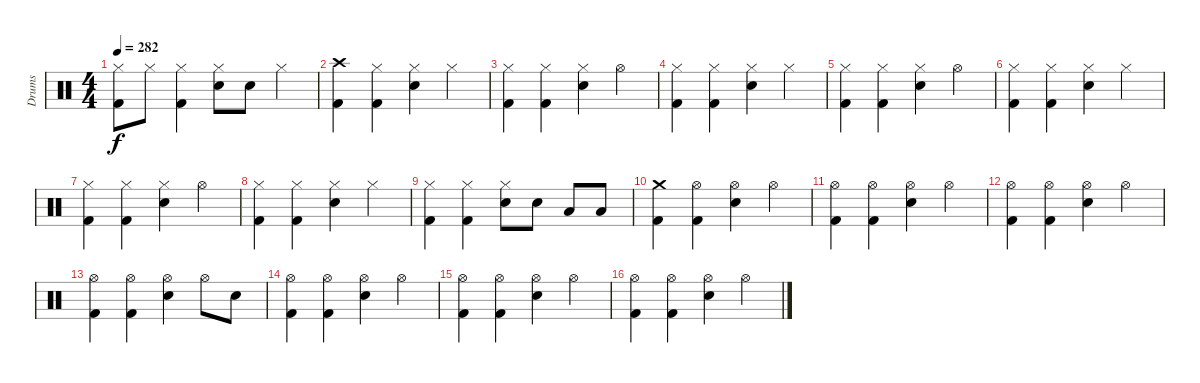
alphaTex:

\track ("Drums" "Drums") {instrument percussion}
\staff {score}
\articulation defaults
\ts (4 4)
\tempo 282
\clef neutral
\ks c
("Hi-Hat (closed)" "Kick (hit) 2").8{dy f} "Hi-Hat (closed)".8 ("Hi-Hat (closed)" "Kick (hit) 2").4 ("Hi-Hat (closed)" "Electric Snare (hit)").8 "Electric Snare (hit)".8 "Hi-Hat (closed)".4 |
("Crash high (hit)" "Kick (hit) 2").4 ("Hi-Hat (closed)" "Kick (hit) 2").4 ("Hi-Hat (closed)" "Electric Snare (hit)").4 "Hi-Hat (closed)".4 |
("Hi-Hat (closed)" "Kick (hit) 2").4 ("Hi-Hat (closed)" "Kick (hit) 2").4 ("Hi-Hat (closed)" "Electric Snare (hit)").4 "Hi-Hat (open)".4 |
("Hi-Hat (closed)" "Kick (hit) 2").4 ("Hi-Hat (closed)" "Kick (hit) 2").4 ("Hi-Hat (closed)" "Electric Snare (hit)").4 "Hi-Hat (closed)".4 |
("Hi-Hat (closed)" "Kick (hit) 2").4 ("Hi-Hat (closed)" "Kick (hit) 2").4 ("Hi-Hat (closed)" "Electric Snare (hit)").4 "Hi-Hat (open)".4 |
("Hi-Hat (closed)" "Kick (hit) 2").4 ("Hi-Hat (closed)" "Kick (hit) 2").4 ("Hi-Hat (closed)" "Electric Snare (hit)").4 "Hi-Hat (closed)".4 |
("Hi-Hat (closed)" "Kick (hit) 2").4 ("Hi-Hat (closed)" "Kick (hit) 2").4 ("Hi-Hat (closed)" "Electric Snare (hit)").4 "Hi-Hat (open)".4 |
("Hi-Hat (closed)" "Kick (hit) 2").4 ("Hi-Hat (closed)" "Kick (hit) 2").4 ("Hi-Hat (closed)" "Electric Snare (hit)").4 "Hi-Hat (closed)".4 |
("Hi-Hat (closed)" "Kick (hit) 2").4 ("Hi-Hat (closed)" "Kick (hit) 2").4 ("Hi-Hat (closed)" "Electric Snare (hit)").8 "Electric Snare (hit)".8 "Low Tom (hit)".8 "Low Tom (hit)".8 |
("Crash medium (hit)" "Kick (hit) 2").4 ("Hi-Hat (open)" "Kick (hit) 2").4 ("Hi-Hat (open)" "Electric Snare (hit)").4 "Hi-Hat (open)".4 |
("Hi-Hat (open)" "Kick (hit) 2").4 ("Hi-Hat (open)" "Kick (hit) 2").4 ("Hi-Hat (open)" "Electric Snare (hit)").4 "Hi-Hat (open)".4 |
("Hi-Hat (open)" "Kick (hit) 2").4 ("Hi-Hat (open)" "Kick (hit) 2").4 ("Hi-Hat (open)" "Electric Snare (hit)").4 "Hi-Hat (open)".4 |
("Hi-Hat (open)" "Kick (hit) 2").4 ("Hi-Hat (open)" "Kick (hit) 2").4 ("Hi-Hat (open)" "Electric Snare (hit)").4 "Hi-Hat (open)".8 "Electric Snare (hit)".8 |
("Hi-Hat (open)" "Kick (hit) 2").4 ("Hi-Hat (open)" "Kick (hit) 2").4 ("Hi-Hat (open)" "Electric Snare (hit)").4 "Hi-Hat (open)".4 |
("Hi-Hat (open)" "Kick (hit) 2").4 ("Hi-Hat (open)" "Kick (hit) 2").4 ("Hi-Hat (open)" "Electric Snare (hit)").4 "Hi-Hat (open)".4 |
("Hi-Hat (open)" "Kick (hit) 2").4 ("Hi-Hat (open)" "Kick (hit) 2").4 ("Hi-Hat (open)" "Electric Snare (hit)").4 "Hi-Hat (open)".4
